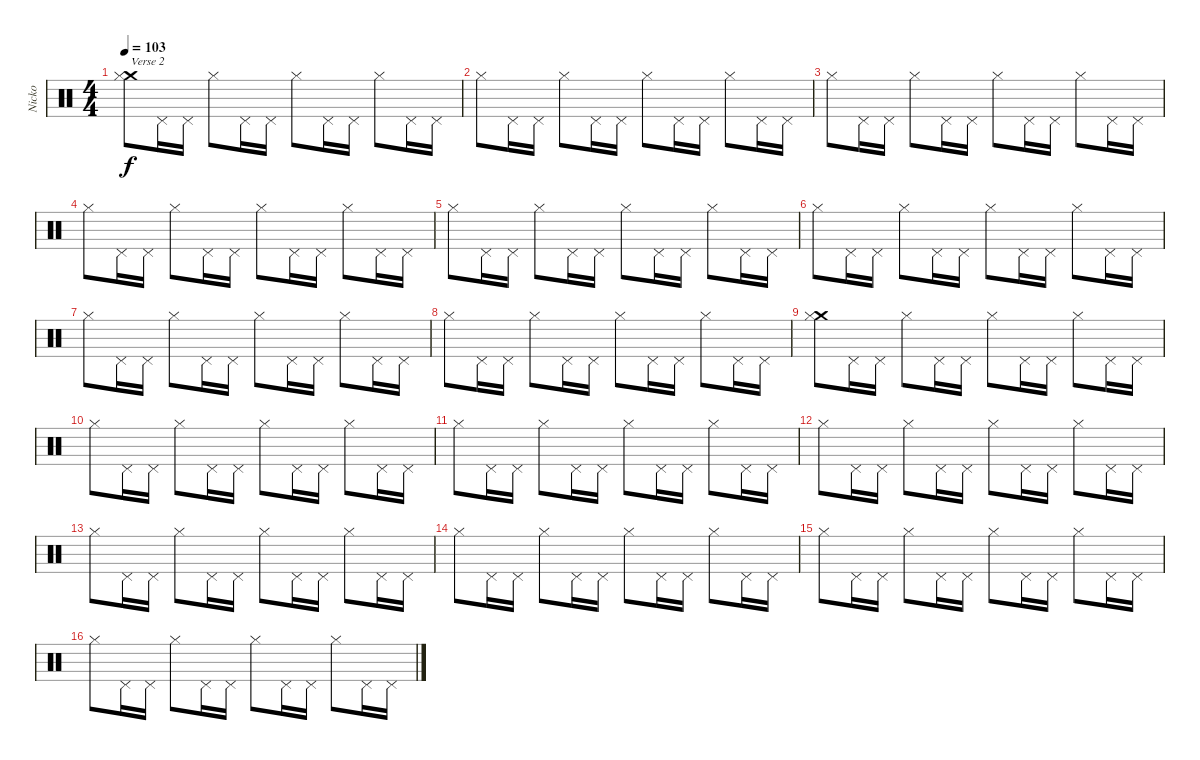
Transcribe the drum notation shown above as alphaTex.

\track ("Nicko" "Nicko") {instrument percussion}
\staff {score}
\articulation defaults
\ts (4 4)
\tempo 103
\clef neutral
\ks c
("Crash medium (hit)" "Hi-Hat (closed)").8{txt "Verse 2" dy f volume 16} "Pedal Hi-Hat (hit)".16 "Pedal Hi-Hat (hit)".16 "Hi-Hat (closed)".8 "Pedal Hi-Hat (hit)".16 "Pedal Hi-Hat (hit)".16 "Hi-Hat (closed)".8 "Pedal Hi-Hat (hit)".16 "Pedal Hi-Hat (hit)".16 "Hi-Hat (closed)".8 "Pedal Hi-Hat (hit)".16 "Pedal Hi-Hat (hit)".16 |
"Hi-Hat (closed)".8 "Pedal Hi-Hat (hit)".16 "Pedal Hi-Hat (hit)".16 "Hi-Hat (closed)".8 "Pedal Hi-Hat (hit)".16 "Pedal Hi-Hat (hit)".16 "Hi-Hat (closed)".8 "Pedal Hi-Hat (hit)".16 "Pedal Hi-Hat (hit)".16 "Hi-Hat (closed)".8 "Pedal Hi-Hat (hit)".16 "Pedal Hi-Hat (hit)".16 |
"Hi-Hat (closed)".8 "Pedal Hi-Hat (hit)".16 "Pedal Hi-Hat (hit)".16 "Hi-Hat (closed)".8 "Pedal Hi-Hat (hit)".16 "Pedal Hi-Hat (hit)".16 "Hi-Hat (closed)".8 "Pedal Hi-Hat (hit)".16 "Pedal Hi-Hat (hit)".16 "Hi-Hat (closed)".8 "Pedal Hi-Hat (hit)".16 "Pedal Hi-Hat (hit)".16 |
"Hi-Hat (closed)".8 "Pedal Hi-Hat (hit)".16 "Pedal Hi-Hat (hit)".16 "Hi-Hat (closed)".8 "Pedal Hi-Hat (hit)".16 "Pedal Hi-Hat (hit)".16 "Hi-Hat (closed)".8 "Pedal Hi-Hat (hit)".16 "Pedal Hi-Hat (hit)".16 "Hi-Hat (closed)".8 "Pedal Hi-Hat (hit)".16 "Pedal Hi-Hat (hit)".16 |
"Hi-Hat (closed)".8 "Pedal Hi-Hat (hit)".16 "Pedal Hi-Hat (hit)".16 "Hi-Hat (closed)".8 "Pedal Hi-Hat (hit)".16 "Pedal Hi-Hat (hit)".16 "Hi-Hat (closed)".8 "Pedal Hi-Hat (hit)".16 "Pedal Hi-Hat (hit)".16 "Hi-Hat (closed)".8 "Pedal Hi-Hat (hit)".16 "Pedal Hi-Hat (hit)".16 |
"Hi-Hat (closed)".8 "Pedal Hi-Hat (hit)".16 "Pedal Hi-Hat (hit)".16 "Hi-Hat (closed)".8 "Pedal Hi-Hat (hit)".16 "Pedal Hi-Hat (hit)".16 "Hi-Hat (closed)".8 "Pedal Hi-Hat (hit)".16 "Pedal Hi-Hat (hit)".16 "Hi-Hat (closed)".8 "Pedal Hi-Hat (hit)".16 "Pedal Hi-Hat (hit)".16 |
"Hi-Hat (closed)".8 "Pedal Hi-Hat (hit)".16 "Pedal Hi-Hat (hit)".16 "Hi-Hat (closed)".8 "Pedal Hi-Hat (hit)".16 "Pedal Hi-Hat (hit)".16 "Hi-Hat (closed)".8 "Pedal Hi-Hat (hit)".16 "Pedal Hi-Hat (hit)".16 "Hi-Hat (closed)".8 "Pedal Hi-Hat (hit)".16 "Pedal Hi-Hat (hit)".16 |
"Hi-Hat (closed)".8 "Pedal Hi-Hat (hit)".16 "Pedal Hi-Hat (hit)".16 "Hi-Hat (closed)".8 "Pedal Hi-Hat (hit)".16 "Pedal Hi-Hat (hit)".16 "Hi-Hat (closed)".8 "Pedal Hi-Hat (hit)".16 "Pedal Hi-Hat (hit)".16 "Hi-Hat (closed)".8 "Pedal Hi-Hat (hit)".16 "Pedal Hi-Hat (hit)".16{volume 0} |
("Crash medium (hit)" "Hi-Hat (closed)").8{volume 16} "Pedal Hi-Hat (hit)".16 "Pedal Hi-Hat (hit)".16 "Hi-Hat (closed)".8 "Pedal Hi-Hat (hit)".16 "Pedal Hi-Hat (hit)".16 "Hi-Hat (closed)".8 "Pedal Hi-Hat (hit)".16 "Pedal Hi-Hat (hit)".16 "Hi-Hat (closed)".8 "Pedal Hi-Hat (hit)".16 "Pedal Hi-Hat (hit)".16 |
"Hi-Hat (closed)".8 "Pedal Hi-Hat (hit)".16 "Pedal Hi-Hat (hit)".16 "Hi-Hat (closed)".8 "Pedal Hi-Hat (hit)".16 "Pedal Hi-Hat (hit)".16 "Hi-Hat (closed)".8 "Pedal Hi-Hat (hit)".16 "Pedal Hi-Hat (hit)".16 "Hi-Hat (closed)".8 "Pedal Hi-Hat (hit)".16 "Pedal Hi-Hat (hit)".16 |
"Hi-Hat (closed)".8 "Pedal Hi-Hat (hit)".16 "Pedal Hi-Hat (hit)".16 "Hi-Hat (closed)".8 "Pedal Hi-Hat (hit)".16 "Pedal Hi-Hat (hit)".16 "Hi-Hat (closed)".8 "Pedal Hi-Hat (hit)".16 "Pedal Hi-Hat (hit)".16 "Hi-Hat (closed)".8 "Pedal Hi-Hat (hit)".16 "Pedal Hi-Hat (hit)".16 |
"Hi-Hat (closed)".8 "Pedal Hi-Hat (hit)".16 "Pedal Hi-Hat (hit)".16 "Hi-Hat (closed)".8 "Pedal Hi-Hat (hit)".16 "Pedal Hi-Hat (hit)".16 "Hi-Hat (closed)".8 "Pedal Hi-Hat (hit)".16 "Pedal Hi-Hat (hit)".16 "Hi-Hat (closed)".8 "Pedal Hi-Hat (hit)".16 "Pedal Hi-Hat (hit)".16 |
"Hi-Hat (closed)".8 "Pedal Hi-Hat (hit)".16 "Pedal Hi-Hat (hit)".16 "Hi-Hat (closed)".8 "Pedal Hi-Hat (hit)".16 "Pedal Hi-Hat (hit)".16 "Hi-Hat (closed)".8 "Pedal Hi-Hat (hit)".16 "Pedal Hi-Hat (hit)".16 "Hi-Hat (closed)".8 "Pedal Hi-Hat (hit)".16 "Pedal Hi-Hat (hit)".16 |
"Hi-Hat (closed)".8 "Pedal Hi-Hat (hit)".16 "Pedal Hi-Hat (hit)".16 "Hi-Hat (closed)".8 "Pedal Hi-Hat (hit)".16 "Pedal Hi-Hat (hit)".16 "Hi-Hat (closed)".8 "Pedal Hi-Hat (hit)".16 "Pedal Hi-Hat (hit)".16 "Hi-Hat (closed)".8 "Pedal Hi-Hat (hit)".16 "Pedal Hi-Hat (hit)".16 |
"Hi-Hat (closed)".8 "Pedal Hi-Hat (hit)".16 "Pedal Hi-Hat (hit)".16 "Hi-Hat (closed)".8 "Pedal Hi-Hat (hit)".16 "Pedal Hi-Hat (hit)".16 "Hi-Hat (closed)".8 "Pedal Hi-Hat (hit)".16 "Pedal Hi-Hat (hit)".16 "Hi-Hat (closed)".8 "Pedal Hi-Hat (hit)".16 "Pedal Hi-Hat (hit)".16 |
"Hi-Hat (closed)".8 "Pedal Hi-Hat (hit)".16 "Pedal Hi-Hat (hit)".16 "Hi-Hat (closed)".8 "Pedal Hi-Hat (hit)".16 "Pedal Hi-Hat (hit)".16 "Hi-Hat (closed)".8 "Pedal Hi-Hat (hit)".16 "Pedal Hi-Hat (hit)".16 "Hi-Hat (closed)".8 "Pedal Hi-Hat (hit)".16 "Pedal Hi-Hat (hit)".16
